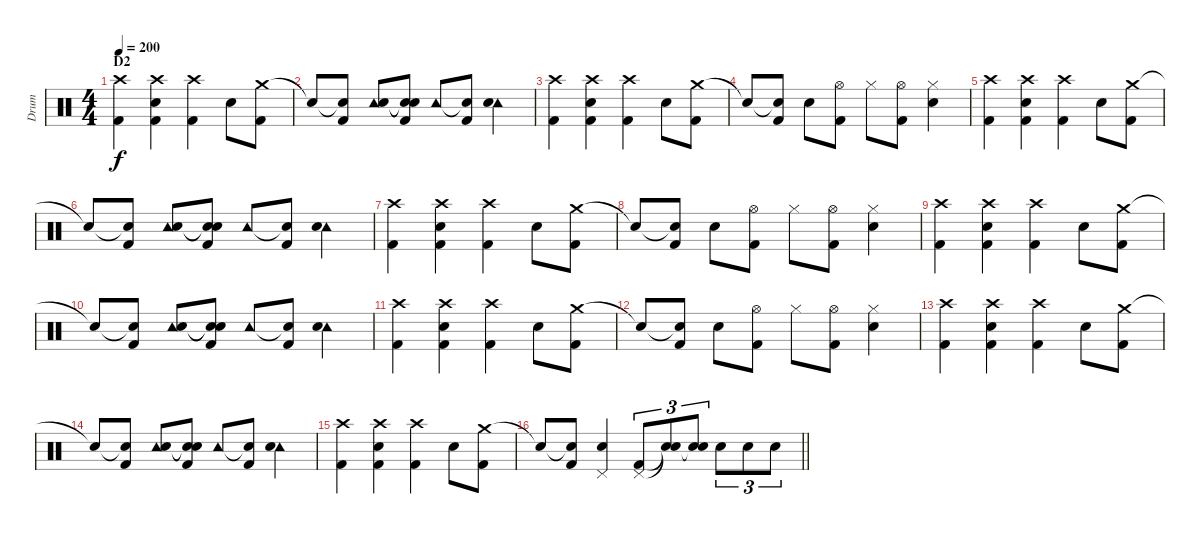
\track ("Drum" "Drum") {instrument percussion}
\staff {score}
\articulation defaults
\ts (4 4)
\section ("" "D2")
\tempo 200
\clef neutral
\ks c
("Crash high (hit)" "Kick (hit) 2").4{dy f} ("Crash high (hit)" "Snare (hit) 2" "Kick (hit) 2").4 ("Crash high (hit)" "Kick (hit) 2").4 "Snare (hit) 2".8 ("Crash medium (hit)" "Kick (hit) 2").8 |
"Snare (hit)"{t}.8 ("Snare (hit)"{t} "Kick (hit) 2").8 ("Tambourine (hit)" "Snare (hit) 2").8 ("Snare (hit)"{t} "Snare (hit)"{t} "Kick (hit) 2").8 "Tambourine (hit)".8 ("Snare (hit)"{t} "Kick (hit) 2").8 ("Tambourine (hit)" "Snare (hit) 2").4 |
("Crash high (hit)" "Kick (hit) 2").4 ("Crash high (hit)" "Snare (hit) 2" "Kick (hit) 2").4 ("Crash high (hit)" "Kick (hit) 2").4 "Snare (hit) 2".8 ("Crash medium (hit)" "Kick (hit) 2").8 |
"Snare (hit)"{t}.8 ("Snare (hit)"{t} "Kick (hit) 2").8 "Snare (hit) 2".8 ("Hi-Hat (open)" "Kick (hit) 2").8 "Hi-Hat (closed)".8 ("Hi-Hat (open)" "Kick (hit) 2").8 ("Hi-Hat (closed)" "Snare (hit) 2").4 |
("Crash high (hit)" "Kick (hit) 2").4 ("Crash high (hit)" "Snare (hit) 2" "Kick (hit) 2").4 ("Crash high (hit)" "Kick (hit) 2").4 "Snare (hit) 2".8 ("Crash medium (hit)" "Kick (hit) 2").8 |
"Snare (hit)"{t}.8 ("Snare (hit)"{t} "Kick (hit) 2").8 ("Tambourine (hit)" "Snare (hit) 2").8 ("Snare (hit)"{t} "Snare (hit)"{t} "Kick (hit) 2").8 "Tambourine (hit)".8 ("Snare (hit)"{t} "Kick (hit) 2").8 ("Tambourine (hit)" "Snare (hit) 2").4 |
("Crash high (hit)" "Kick (hit) 2").4 ("Crash high (hit)" "Snare (hit) 2" "Kick (hit) 2").4 ("Crash high (hit)" "Kick (hit) 2").4 "Snare (hit) 2".8 ("Crash medium (hit)" "Kick (hit) 2").8 |
"Snare (hit)"{t}.8 ("Snare (hit)"{t} "Kick (hit) 2").8 "Snare (hit) 2".8 ("Hi-Hat (open)" "Kick (hit) 2").8 "Hi-Hat (closed)".8 ("Hi-Hat (open)" "Kick (hit) 2").8 ("Hi-Hat (closed)" "Snare (hit) 2").4 |
("Crash high (hit)" "Kick (hit) 2").4 ("Crash high (hit)" "Snare (hit) 2" "Kick (hit) 2").4 ("Crash high (hit)" "Kick (hit) 2").4 "Snare (hit) 2".8 ("Crash medium (hit)" "Kick (hit) 2").8 |
"Snare (hit)"{t}.8 ("Snare (hit)"{t} "Kick (hit) 2").8 ("Tambourine (hit)" "Snare (hit) 2").8 ("Snare (hit)"{t} "Snare (hit)"{t} "Kick (hit) 2").8 "Tambourine (hit)".8 ("Snare (hit)"{t} "Kick (hit) 2").8 ("Tambourine (hit)" "Snare (hit) 2").4 |
("Crash high (hit)" "Kick (hit) 2").4 ("Crash high (hit)" "Snare (hit) 2" "Kick (hit) 2").4 ("Crash high (hit)" "Kick (hit) 2").4 "Snare (hit) 2".8 ("Crash medium (hit)" "Kick (hit) 2").8 |
"Snare (hit)"{t}.8 ("Snare (hit)"{t} "Kick (hit) 2").8 "Snare (hit) 2".8 ("Hi-Hat (open)" "Kick (hit) 2").8 "Hi-Hat (closed)".8 ("Hi-Hat (open)" "Kick (hit) 2").8 ("Hi-Hat (closed)" "Snare (hit) 2").4 |
("Crash high (hit)" "Kick (hit) 2").4 ("Crash high (hit)" "Snare (hit) 2" "Kick (hit) 2").4 ("Crash high (hit)" "Kick (hit) 2").4 "Snare (hit) 2".8 ("Crash medium (hit)" "Kick (hit) 2").8 |
"Snare (hit)"{t}.8 ("Snare (hit)"{t} "Kick (hit) 2").8 ("Tambourine (hit)" "Snare (hit) 2").8 ("Snare (hit)"{t} "Snare (hit)"{t} "Kick (hit) 2").8 "Tambourine (hit)".8 ("Snare (hit)"{t} "Kick (hit) 2").8 ("Tambourine (hit)" "Snare (hit) 2").4 |
("Crash high (hit)" "Kick (hit) 2").4 ("Crash high (hit)" "Snare (hit) 2" "Kick (hit) 2").4 ("Crash high (hit)" "Kick (hit) 2").4 "Snare (hit) 2".8 ("Crash medium (hit)" "Kick (hit) 2").8 |
\barLineRight lightlight "Snare (hit)"{t}.8
("Snare (hit)"{t} "Kick (hit) 2").8 ("Snare (hit) 2" "Pedal Hi-Hat (hit)").4 ("Pedal Hi-Hat (hit)" "Kick (hit) 2").8{tu (3 2)} ("Snare (hit)"{t} "Snare (hit)"{t}).8{tu (3 2)} ("Snare (hit) 2" "Snare (hit)"{t}).8{tu (3 2)} "Snare (hit) 2".8{tu (3 2)} "Snare (hit) 2".8{tu (3 2)} "Snare (hit) 2".8{tu (3 2)}
